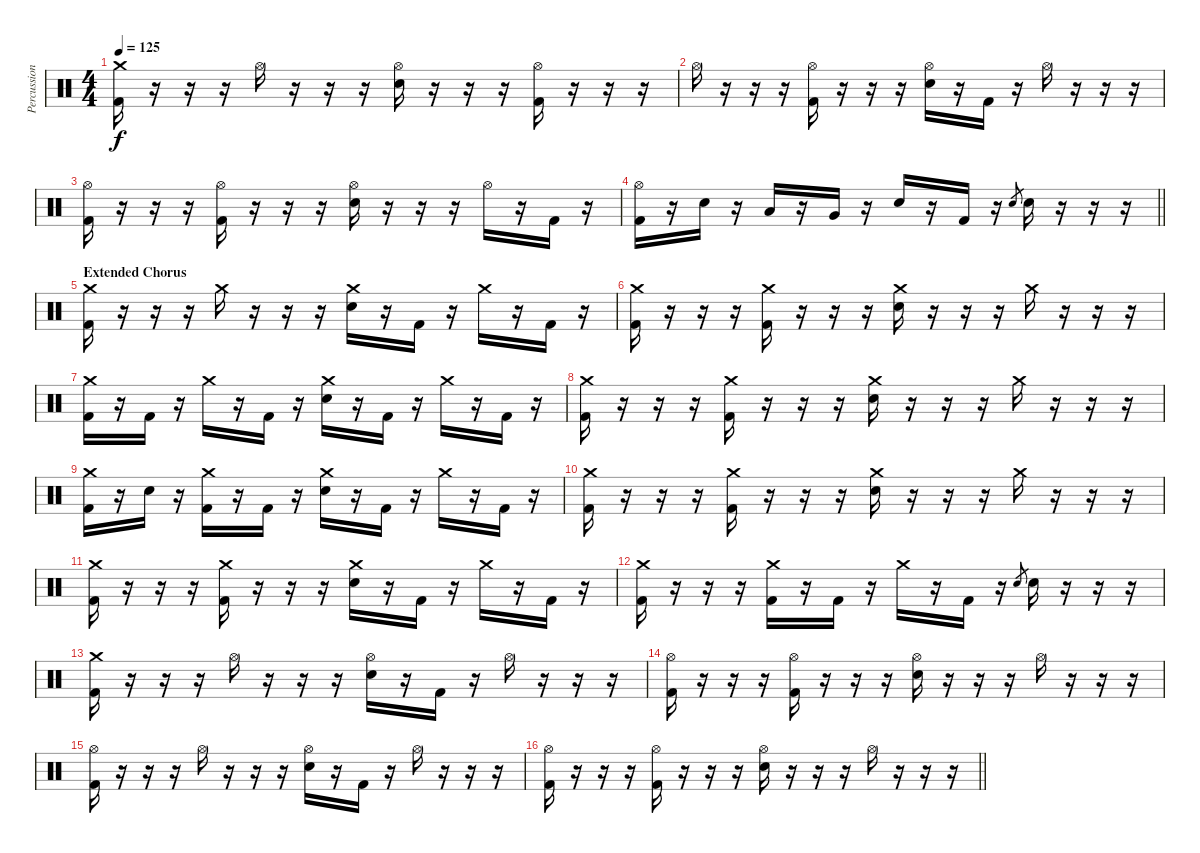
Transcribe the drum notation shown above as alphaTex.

\track ("Percussion" "Percussion") {instrument percussion}
\staff {score}
\articulation defaults
\ts (4 4)
\tempo 125
\clef neutral
\ks c
("Crash medium (hit)" "Kick (hit) 2").16{dy f} r.16 r.16 r.16 "Hi-Hat (open)".16 r.16 r.16 r.16 ("Hi-Hat (open)" "Electric Snare (hit)").16 r.16 r.16 r.16 ("Hi-Hat (open)" "Kick (hit) 2").16 r.16 r.16 r.16 |
"Hi-Hat (open)".16 r.16 r.16 r.16 ("Hi-Hat (open)" "Kick (hit) 2").16 r.16 r.16 r.16 ("Hi-Hat (open)" "Electric Snare (hit)").16 r.16 "Kick (hit) 2".16 r.16 "Hi-Hat (open)".16 r.16 r.16 r.16 |
("Hi-Hat (open)" "Kick (hit) 2").16 r.16 r.16 r.16 ("Hi-Hat (open)" "Kick (hit) 2").16 r.16 r.16 r.16 ("Hi-Hat (open)" "Electric Snare (hit)").16 r.16 r.16 r.16 "Hi-Hat (open)".16 r.16 "Kick (hit) 2".16 r.16 |
\barLineRight lightlight
("Hi-Hat (open)" "Kick (hit) 2").16 r.16 "Electric Snare (hit)".16 r.16 "Low Tom (hit)".16 r.16 "Very Low Tom (hit)".16 r.16 "Electric Snare (hit)".16 r.16 "Kick (hit) 2".16 r.16 "Electric Snare (hit)".8{gr} "Electric Snare (hit)".16 r.16 r.16 r.16 |
\section ("" "Extended Chorus")
("Crash medium (hit)" "Kick (hit) 2").16 r.16 r.16 r.16 "Crash medium (hit)".16 r.16 r.16 r.16 ("Crash medium (hit)" "Electric Snare (hit)").16 r.16 "Kick (hit) 2".16 r.16 "Crash medium (hit)".16 r.16 "Kick (hit) 2".16 r.16 |
("Crash medium (hit)" "Kick (hit) 2").16 r.16 r.16 r.16 ("Crash medium (hit)" "Kick (hit) 2").16 r.16 r.16 r.16 ("Crash medium (hit)" "Electric Snare (hit)").16 r.16 r.16 r.16 "Crash medium (hit)".16 r.16 r.16 r.16 |
("Crash medium (hit)" "Kick (hit) 2").16 r.16 "Kick (hit) 2".16 r.16 "Crash medium (hit)".16 r.16 "Kick (hit) 2".16 r.16 ("Crash medium (hit)" "Electric Snare (hit)").16 r.16 "Kick (hit) 2".16 r.16 "Crash medium (hit)".16 r.16 "Kick (hit) 2".16 r.16 |
("Crash medium (hit)" "Kick (hit) 2").16 r.16 r.16 r.16 ("Crash medium (hit)" "Kick (hit) 2").16 r.16 r.16 r.16 ("Crash medium (hit)" "Electric Snare (hit)").16 r.16 r.16 r.16 "Crash medium (hit)".16 r.16 r.16 r.16 |
("Crash medium (hit)" "Kick (hit) 2").16 r.16 "Electric Snare (hit)".16 r.16 ("Crash medium (hit)" "Kick (hit) 2").16 r.16 "Kick (hit) 2".16 r.16 ("Crash medium (hit)" "Electric Snare (hit)").16 r.16 "Kick (hit) 2".16 r.16 "Crash medium (hit)".16 r.16 "Kick (hit) 2".16 r.16 |
("Crash medium (hit)" "Kick (hit) 2").16 r.16 r.16 r.16 ("Crash medium (hit)" "Kick (hit) 2").16 r.16 r.16 r.16 ("Crash medium (hit)" "Electric Snare (hit)").16 r.16 r.16 r.16 "Crash medium (hit)".16 r.16 r.16 r.16 |
("Crash medium (hit)" "Kick (hit) 2").16 r.16 r.16 r.16 ("Crash medium (hit)" "Kick (hit) 2").16 r.16 r.16 r.16 ("Crash medium (hit)" "Electric Snare (hit)").16 r.16 "Kick (hit) 2".16 r.16 "Crash medium (hit)".16 r.16 "Kick (hit) 2".16 r.16 |
("Crash medium (hit)" "Kick (hit) 2").16 r.16 r.16 r.16 ("Crash medium (hit)" "Kick (hit) 2").16 r.16 "Kick (hit) 2".16 r.16 "Crash medium (hit)".16 r.16 "Kick (hit) 2".16 r.16 "Electric Snare (hit)".8{gr} "Electric Snare (hit)".16 r.16 r.16 r.16 |
("Crash medium (hit)" "Kick (hit) 2").16 r.16 r.16 r.16 "Hi-Hat (open)".16 r.16 r.16 r.16 ("Hi-Hat (open)" "Electric Snare (hit)").16 r.16 "Kick (hit) 2".16 r.16 "Hi-Hat (open)".16 r.16 r.16 r.16 |
("Hi-Hat (open)" "Kick (hit) 2").16 r.16 r.16 r.16 ("Hi-Hat (open)" "Kick (hit) 2").16 r.16 r.16 r.16 ("Hi-Hat (open)" "Electric Snare (hit)").16 r.16 r.16 r.16 "Hi-Hat (open)".16 r.16 r.16 r.16 |
("Hi-Hat (open)" "Kick (hit) 2").16 r.16 r.16 r.16 "Hi-Hat (open)".16 r.16 r.16 r.16 ("Hi-Hat (open)" "Electric Snare (hit)").16 r.16 "Kick (hit) 2".16 r.16 "Hi-Hat (open)".16 r.16 r.16 r.16 |
\barLineRight lightlight
("Hi-Hat (open)" "Kick (hit) 2").16 r.16 r.16 r.16 ("Hi-Hat (open)" "Kick (hit) 2").16 r.16 r.16 r.16 ("Hi-Hat (open)" "Electric Snare (hit)").16 r.16 r.16 r.16 "Hi-Hat (open)".16 r.16 r.16 r.16
